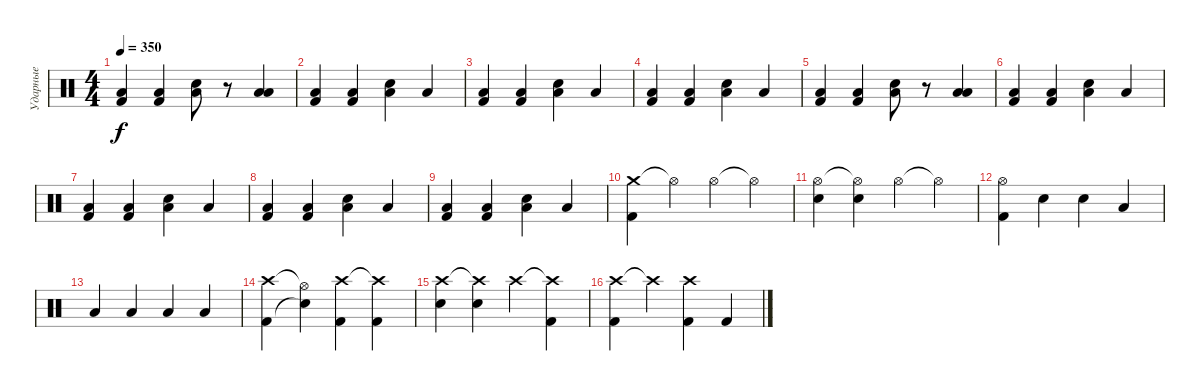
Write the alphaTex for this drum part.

\track ("Ударные" "Ударные") {instrument percussion}
\staff {score}
\articulation defaults
\ts (4 4)
\tempo 350
\clef neutral
\ks c
("Low Floor Tom (hit)" "Kick (hit) 2").4{dy f} ("Low Floor Tom (hit)" "Kick (hit) 2").4 ("Low Floor Tom (hit)" "Electric Snare (hit)").8 r.8 ("Low Floor Tom (hit)" "Low Tom (hit)").4 |
("Low Floor Tom (hit)" "Kick (hit) 2").4 ("Low Floor Tom (hit)" "Kick (hit) 2").4 ("Low Floor Tom (hit)" "Electric Snare (hit)").4 "Low Floor Tom (hit)".4 |
("Low Floor Tom (hit)" "Kick (hit) 2").4 ("Low Floor Tom (hit)" "Kick (hit) 2").4 ("Low Floor Tom (hit)" "Electric Snare (hit)").4 "Low Floor Tom (hit)".4 |
("Low Floor Tom (hit)" "Kick (hit) 2").4 ("Low Floor Tom (hit)" "Kick (hit) 2").4 ("Low Floor Tom (hit)" "Electric Snare (hit)").4 "Low Floor Tom (hit)".4 |
("Low Floor Tom (hit)" "Kick (hit) 2").4 ("Low Floor Tom (hit)" "Kick (hit) 2").4 ("Low Floor Tom (hit)" "Electric Snare (hit)").8 r.8 ("Low Floor Tom (hit)" "Low Tom (hit)").4 |
("Low Floor Tom (hit)" "Kick (hit) 2").4 ("Low Floor Tom (hit)" "Kick (hit) 2").4 ("Low Floor Tom (hit)" "Electric Snare (hit)").4 "Low Floor Tom (hit)".4 |
("Low Floor Tom (hit)" "Kick (hit) 2").4 ("Low Floor Tom (hit)" "Kick (hit) 2").4 ("Low Floor Tom (hit)" "Electric Snare (hit)").4 "Low Floor Tom (hit)".4 |
("Low Floor Tom (hit)" "Kick (hit) 2").4 ("Low Floor Tom (hit)" "Kick (hit) 2").4 ("Low Floor Tom (hit)" "Electric Snare (hit)").4 "Low Floor Tom (hit)".4 |
("Low Floor Tom (hit)" "Kick (hit) 2").4 ("Low Floor Tom (hit)" "Kick (hit) 2").4 ("Low Floor Tom (hit)" "Electric Snare (hit)").4 "Low Floor Tom (hit)".4 |
("Crash medium (hit)" "Kick (hit) 2").4 "Hi-Hat (open)"{t}.4 "Hi-Hat (open)".4 "Hi-Hat (open)"{t}.4 |
("Hi-Hat (open)" "Electric Snare (hit)").4 ("Hi-Hat (open)"{t} "Electric Snare (hit)").4 "Hi-Hat (open)".4 "Hi-Hat (open)"{t}.4 |
("Hi-Hat (open)" "Kick (hit) 2").4 "Electric Snare (hit)".4 "Electric Snare (hit)".4 "Low Tom (hit)".4 |
"Low Tom (hit)".4 "Low Floor Tom (hit)".4 "Low Floor Tom (hit)".4 "Low Floor Tom (hit)".4 |
("Crash high (hit)" "Kick (hit) 2").4 ("Hi-Hat (open)"{t} "Snare (hit)"{t}).4 ("Crash high (hit)" "Kick (hit) 2").4 ("Crash high (hit)"{t} "Kick (hit) 2").4 |
("Crash high (hit)" "Electric Snare (hit)").4 ("Crash high (hit)"{t} "Electric Snare (hit)").4 "Crash high (hit)".4 ("Crash high (hit)"{t} "Kick (hit) 2").4 |
("Crash high (hit)" "Kick (hit) 2").4 "Crash high (hit)"{t}.4 ("Crash high (hit)" "Kick (hit) 2").4 "Kick (hit) 2".4
